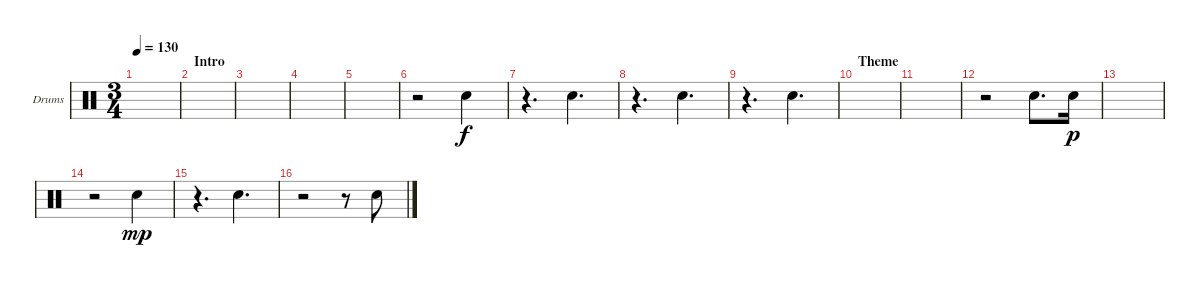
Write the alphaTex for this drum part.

\bracketExtendMode groupsimilarinstruments
\firstSystemTrackNameOrientation horizontal
\otherSystemsTrackNameOrientation horizontal
\track ("Drums" "Drums") {instrument percussion}
\staff {score}
\articulation defaults
\ts (3 4)
\tempo 130
\clef neutral
\ks c
|
\section ("" "Intro")
|
|
|
|
r.2 "Snare (hit) 2".4 |
r.4{d} "Snare (hit) 2".4{d} |
r.4{d} "Snare (hit) 2".4{d} |
r.4{d} "Snare (hit) 2".4{d} |
\section ("" "Theme")
|
|
r.2 "Snare (hit) 2".8{d} "Snare (hit) 2".16{dy p} |
|
r.2 "Snare (hit) 2".4{dy mp} |
r.4{d} "Snare (hit) 2".4{d} |
r.2 r.8 "Snare (hit) 2".8
